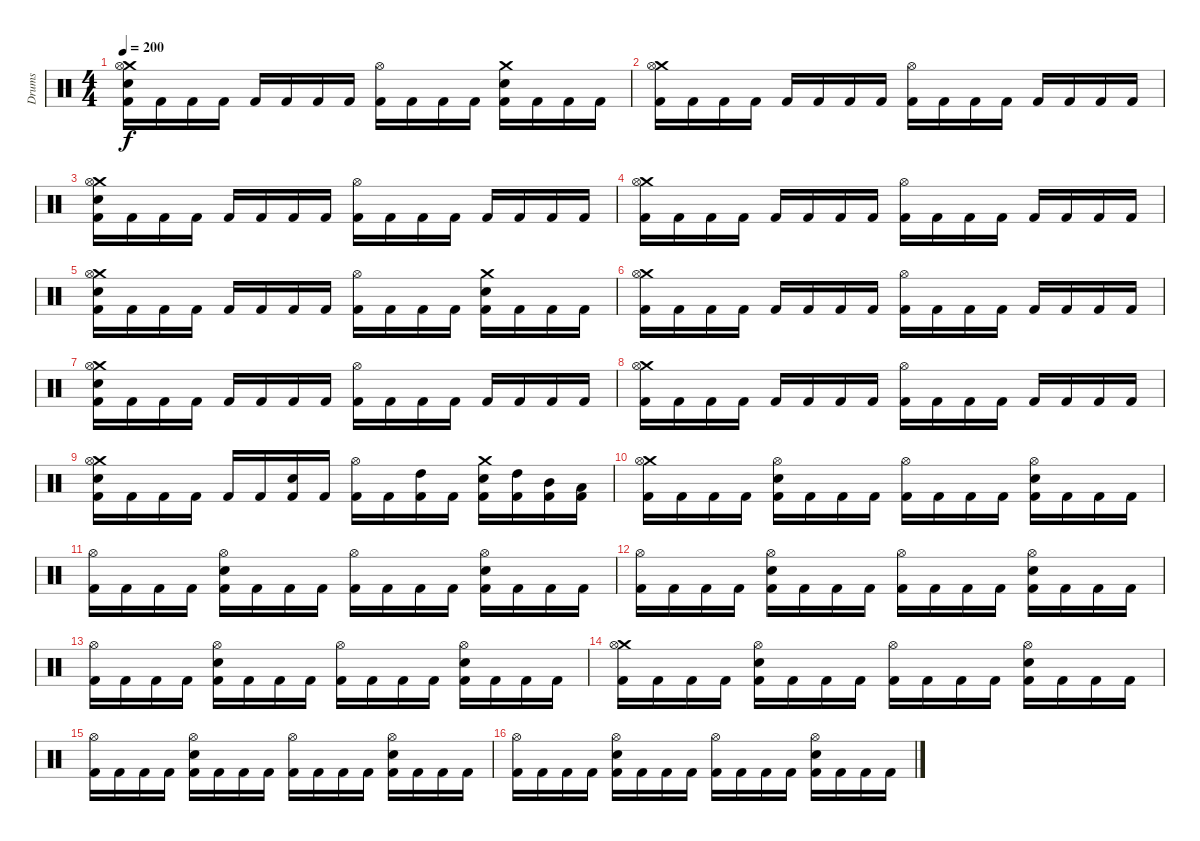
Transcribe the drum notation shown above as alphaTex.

\track ("Drums" "Drums") {instrument percussion}
\staff {score}
\articulation defaults
\ts (4 4)
\tempo 200
\clef neutral
\ks c
("Crash medium (hit)" "Hi-Hat (open)" "Electric Snare (hit)" "Kick (hit) 2").16{dy f} "Kick (hit) 2".16 "Kick (hit) 2".16 "Kick (hit) 2".16 "Kick (hit) 2".16 "Kick (hit) 2".16 "Kick (hit) 2".16 "Kick (hit) 2".16 ("Hi-Hat (open)" "Kick (hit) 2").16 "Kick (hit) 2".16 "Kick (hit) 2".16 "Kick (hit) 2".16 ("Crash medium (hit)" "Electric Snare (hit)" "Kick (hit) 2").16 "Kick (hit) 2".16 "Kick (hit) 2".16 "Kick (hit) 2".16 |
("Crash medium (hit)" "Hi-Hat (open)" "Kick (hit) 2").16 "Kick (hit) 2".16 "Kick (hit) 2".16 "Kick (hit) 2".16 "Kick (hit) 2".16 "Kick (hit) 2".16 "Kick (hit) 2".16 "Kick (hit) 2".16 ("Hi-Hat (open)" "Kick (hit) 2").16 "Kick (hit) 2".16 "Kick (hit) 2".16 "Kick (hit) 2".16 "Kick (hit) 2".16 "Kick (hit) 2".16 "Kick (hit) 2".16 "Kick (hit) 2".16 |
("Crash medium (hit)" "Hi-Hat (open)" "Electric Snare (hit)" "Kick (hit) 2").16 "Kick (hit) 2".16 "Kick (hit) 2".16 "Kick (hit) 2".16 "Kick (hit) 2".16 "Kick (hit) 2".16 "Kick (hit) 2".16 "Kick (hit) 2".16 ("Hi-Hat (open)" "Kick (hit) 2").16 "Kick (hit) 2".16 "Kick (hit) 2".16 "Kick (hit) 2".16 "Kick (hit) 2".16 "Kick (hit) 2".16 "Kick (hit) 2".16 "Kick (hit) 2".16 |
("Crash medium (hit)" "Hi-Hat (open)" "Kick (hit) 2").16 "Kick (hit) 2".16 "Kick (hit) 2".16 "Kick (hit) 2".16 "Kick (hit) 2".16 "Kick (hit) 2".16 "Kick (hit) 2".16 "Kick (hit) 2".16 ("Hi-Hat (open)" "Kick (hit) 2").16 "Kick (hit) 2".16 "Kick (hit) 2".16 "Kick (hit) 2".16 "Kick (hit) 2".16 "Kick (hit) 2".16 "Kick (hit) 2".16 "Kick (hit) 2".16 |
("Crash medium (hit)" "Hi-Hat (open)" "Electric Snare (hit)" "Kick (hit) 2").16 "Kick (hit) 2".16 "Kick (hit) 2".16 "Kick (hit) 2".16 "Kick (hit) 2".16 "Kick (hit) 2".16 "Kick (hit) 2".16 "Kick (hit) 2".16 ("Hi-Hat (open)" "Kick (hit) 2").16 "Kick (hit) 2".16 "Kick (hit) 2".16 "Kick (hit) 2".16 ("Crash medium (hit)" "Electric Snare (hit)" "Kick (hit) 2").16 "Kick (hit) 2".16 "Kick (hit) 2".16 "Kick (hit) 2".16 |
("Crash medium (hit)" "Hi-Hat (open)" "Kick (hit) 2").16 "Kick (hit) 2".16 "Kick (hit) 2".16 "Kick (hit) 2".16 "Kick (hit) 2".16 "Kick (hit) 2".16 "Kick (hit) 2".16 "Kick (hit) 2".16 ("Hi-Hat (open)" "Kick (hit) 2").16 "Kick (hit) 2".16 "Kick (hit) 2".16 "Kick (hit) 2".16 "Kick (hit) 2".16 "Kick (hit) 2".16 "Kick (hit) 2".16 "Kick (hit) 2".16 |
("Crash medium (hit)" "Hi-Hat (open)" "Electric Snare (hit)" "Kick (hit) 2").16 "Kick (hit) 2".16 "Kick (hit) 2".16 "Kick (hit) 2".16 "Kick (hit) 2".16 "Kick (hit) 2".16 "Kick (hit) 2".16 "Kick (hit) 2".16 ("Hi-Hat (open)" "Kick (hit) 2").16 "Kick (hit) 2".16 "Kick (hit) 2".16 "Kick (hit) 2".16 "Kick (hit) 2".16 "Kick (hit) 2".16 "Kick (hit) 2".16 "Kick (hit) 2".16 |
("Crash medium (hit)" "Hi-Hat (open)" "Kick (hit) 2").16 "Kick (hit) 2".16 "Kick (hit) 2".16 "Kick (hit) 2".16 "Kick (hit) 2".16 "Kick (hit) 2".16 "Kick (hit) 2".16 "Kick (hit) 2".16 ("Hi-Hat (open)" "Kick (hit) 2").16 "Kick (hit) 2".16 "Kick (hit) 2".16 "Kick (hit) 2".16 "Kick (hit) 2".16 "Kick (hit) 2".16 "Kick (hit) 2".16 "Kick (hit) 2".16 |
("Crash medium (hit)" "Hi-Hat (open)" "Electric Snare (hit)" "Kick (hit) 2").16 "Kick (hit) 2".16 "Kick (hit) 2".16 "Kick (hit) 2".16 "Kick (hit) 2".16 "Kick (hit) 2".16 ("Electric Snare (hit)" "Kick (hit) 2").16 "Kick (hit) 2".16 ("Hi-Hat (open)" "Kick (hit) 2").16 "Kick (hit) 2".16 ("High Tom (hit)" "Kick (hit) 2").16 "Kick (hit) 2".16 ("Crash medium (hit)" "Electric Snare (hit)" "Kick (hit) 2").16 ("High Tom (hit)" "Kick (hit) 2").16 ("Mid Tom (hit)" "Kick (hit) 2").16 ("Low Tom (hit)" "Kick (hit) 2").16 |
("Crash medium (hit)" "Hi-Hat (open)" "Kick (hit) 2").16 "Kick (hit) 2".16 "Kick (hit) 2".16 "Kick (hit) 2".16 ("Hi-Hat (open)" "Electric Snare (hit)" "Kick (hit) 2").16 "Kick (hit) 2".16 "Kick (hit) 2".16 "Kick (hit) 2".16 ("Hi-Hat (open)" "Kick (hit) 2").16 "Kick (hit) 2".16 "Kick (hit) 2".16 "Kick (hit) 2".16 ("Hi-Hat (open)" "Electric Snare (hit)" "Kick (hit) 2").16 "Kick (hit) 2".16 "Kick (hit) 2".16 "Kick (hit) 2".16 |
("Hi-Hat (open)" "Kick (hit) 2").16 "Kick (hit) 2".16 "Kick (hit) 2".16 "Kick (hit) 2".16 ("Hi-Hat (open)" "Electric Snare (hit)" "Kick (hit) 2").16 "Kick (hit) 2".16 "Kick (hit) 2".16 "Kick (hit) 2".16 ("Hi-Hat (open)" "Kick (hit) 2").16 "Kick (hit) 2".16 "Kick (hit) 2".16 "Kick (hit) 2".16 ("Hi-Hat (open)" "Electric Snare (hit)" "Kick (hit) 2").16 "Kick (hit) 2".16 "Kick (hit) 2".16 "Kick (hit) 2".16 |
("Hi-Hat (open)" "Kick (hit) 2").16 "Kick (hit) 2".16 "Kick (hit) 2".16 "Kick (hit) 2".16 ("Hi-Hat (open)" "Electric Snare (hit)" "Kick (hit) 2").16 "Kick (hit) 2".16 "Kick (hit) 2".16 "Kick (hit) 2".16 ("Hi-Hat (open)" "Kick (hit) 2").16 "Kick (hit) 2".16 "Kick (hit) 2".16 "Kick (hit) 2".16 ("Hi-Hat (open)" "Electric Snare (hit)" "Kick (hit) 2").16 "Kick (hit) 2".16 "Kick (hit) 2".16 "Kick (hit) 2".16 |
("Hi-Hat (open)" "Kick (hit) 2").16 "Kick (hit) 2".16 "Kick (hit) 2".16 "Kick (hit) 2".16 ("Hi-Hat (open)" "Electric Snare (hit)" "Kick (hit) 2").16 "Kick (hit) 2".16 "Kick (hit) 2".16 "Kick (hit) 2".16 ("Hi-Hat (open)" "Kick (hit) 2").16 "Kick (hit) 2".16 "Kick (hit) 2".16 "Kick (hit) 2".16 ("Hi-Hat (open)" "Electric Snare (hit)" "Kick (hit) 2").16 "Kick (hit) 2".16 "Kick (hit) 2".16 "Kick (hit) 2".16 |
("Crash medium (hit)" "Hi-Hat (open)" "Kick (hit) 2").16 "Kick (hit) 2".16 "Kick (hit) 2".16 "Kick (hit) 2".16 ("Hi-Hat (open)" "Electric Snare (hit)" "Kick (hit) 2").16 "Kick (hit) 2".16 "Kick (hit) 2".16 "Kick (hit) 2".16 ("Hi-Hat (open)" "Kick (hit) 2").16 "Kick (hit) 2".16 "Kick (hit) 2".16 "Kick (hit) 2".16 ("Hi-Hat (open)" "Electric Snare (hit)" "Kick (hit) 2").16 "Kick (hit) 2".16 "Kick (hit) 2".16 "Kick (hit) 2".16 |
("Hi-Hat (open)" "Kick (hit) 2").16 "Kick (hit) 2".16 "Kick (hit) 2".16 "Kick (hit) 2".16 ("Hi-Hat (open)" "Electric Snare (hit)" "Kick (hit) 2").16 "Kick (hit) 2".16 "Kick (hit) 2".16 "Kick (hit) 2".16 ("Hi-Hat (open)" "Kick (hit) 2").16 "Kick (hit) 2".16 "Kick (hit) 2".16 "Kick (hit) 2".16 ("Hi-Hat (open)" "Electric Snare (hit)" "Kick (hit) 2").16 "Kick (hit) 2".16 "Kick (hit) 2".16 "Kick (hit) 2".16 |
("Hi-Hat (open)" "Kick (hit) 2").16 "Kick (hit) 2".16 "Kick (hit) 2".16 "Kick (hit) 2".16 ("Hi-Hat (open)" "Electric Snare (hit)" "Kick (hit) 2").16 "Kick (hit) 2".16 "Kick (hit) 2".16 "Kick (hit) 2".16 ("Hi-Hat (open)" "Kick (hit) 2").16 "Kick (hit) 2".16 "Kick (hit) 2".16 "Kick (hit) 2".16 ("Hi-Hat (open)" "Electric Snare (hit)" "Kick (hit) 2").16 "Kick (hit) 2".16 "Kick (hit) 2".16 "Kick (hit) 2".16
